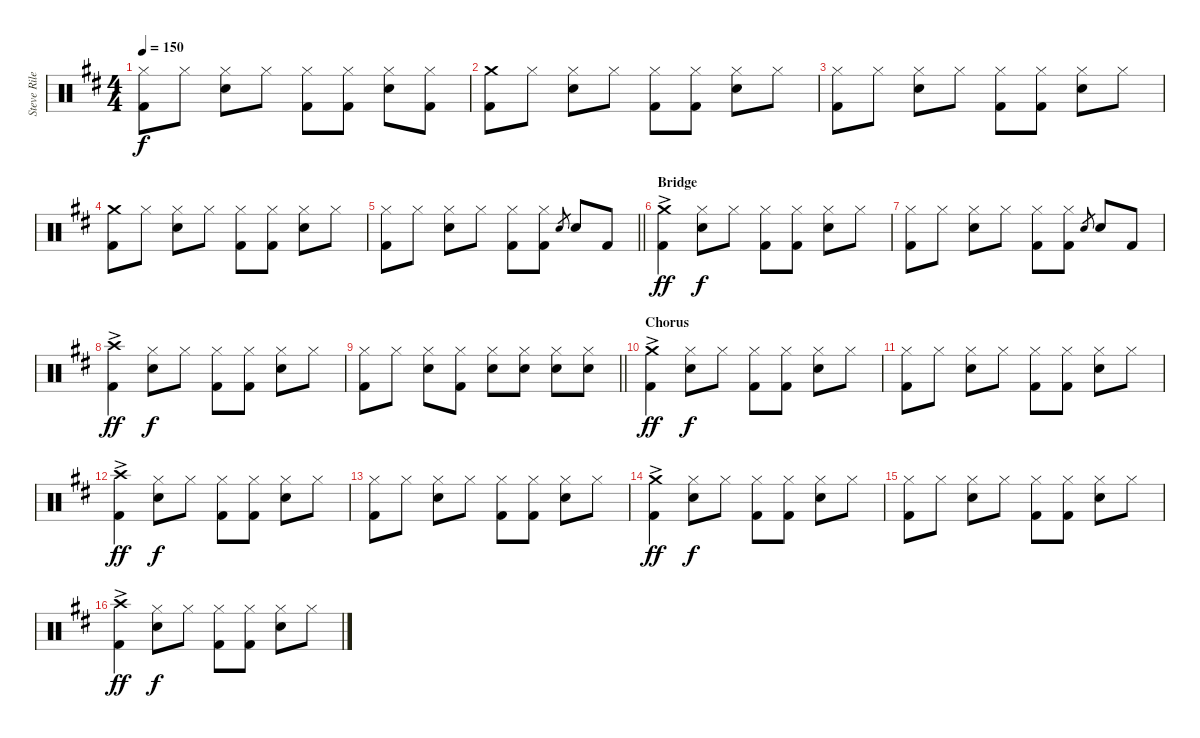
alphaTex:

\track ("Steve Riley" "Steve Rile") {instrument percussion}
\staff {score}
\articulation defaults
\ts (4 4)
\tempo 150
\clef neutral
\ks d
("Hi-Hat (closed)" "Kick (hit) 2").8{dy f} "Hi-Hat (closed)".8 ("Hi-Hat (closed)" "Electric Snare (hit)").8 "Hi-Hat (closed)".8 ("Hi-Hat (closed)" "Kick (hit) 2").8 ("Hi-Hat (closed)" "Kick (hit) 2").8 ("Hi-Hat (closed)" "Electric Snare (hit)").8 ("Hi-Hat (closed)" "Kick (hit) 2").8 |
("Crash medium (hit)" "Kick (hit) 2").8 "Hi-Hat (closed)".8 ("Hi-Hat (closed)" "Electric Snare (hit)").8 "Hi-Hat (closed)".8 ("Hi-Hat (closed)" "Kick (hit) 2").8 ("Hi-Hat (closed)" "Kick (hit) 2").8 ("Hi-Hat (closed)" "Electric Snare (hit)").8 "Hi-Hat (closed)".8 |
("Hi-Hat (closed)" "Kick (hit) 2").8 "Hi-Hat (closed)".8 ("Hi-Hat (closed)" "Electric Snare (hit)").8 "Hi-Hat (closed)".8 ("Hi-Hat (closed)" "Kick (hit) 2").8 ("Hi-Hat (closed)" "Kick (hit) 2").8 ("Hi-Hat (closed)" "Electric Snare (hit)").8 "Hi-Hat (closed)".8 |
("Crash medium (hit)" "Kick (hit) 2").8 "Hi-Hat (closed)".8 ("Hi-Hat (closed)" "Electric Snare (hit)").8 "Hi-Hat (closed)".8 ("Hi-Hat (closed)" "Kick (hit) 2").8 ("Hi-Hat (closed)" "Kick (hit) 2").8 ("Hi-Hat (closed)" "Electric Snare (hit)").8 "Hi-Hat (closed)".8 |
\barLineRight lightlight
("Hi-Hat (closed)" "Kick (hit) 2").8 "Hi-Hat (closed)".8 ("Hi-Hat (closed)" "Electric Snare (hit)").8 "Hi-Hat (closed)".8 ("Hi-Hat (closed)" "Kick (hit) 2").8 ("Hi-Hat (closed)" "Kick (hit) 2").8 "Electric Snare (hit)".8{gr} "Electric Snare (hit)".8 "Kick (hit) 2".8 |
\section ("" "Bridge")
("Crash medium (hit)"{ac} "Kick (hit) 2").4{dy ff} ("Hi-Hat (closed)" "Electric Snare (hit)").8{dy f} "Hi-Hat (closed)".8 ("Hi-Hat (closed)" "Kick (hit) 2").8 ("Hi-Hat (closed)" "Kick (hit) 2").8 ("Hi-Hat (closed)" "Electric Snare (hit)").8 "Hi-Hat (closed)".8 |
("Hi-Hat (closed)" "Kick (hit) 2").8 "Hi-Hat (closed)".8 ("Hi-Hat (closed)" "Electric Snare (hit)").8 "Hi-Hat (closed)".8 ("Hi-Hat (closed)" "Kick (hit) 2").8 ("Hi-Hat (closed)" "Kick (hit) 2").8 "Electric Snare (hit)".8{gr} "Electric Snare (hit)".8 "Kick (hit) 2".8 |
("Crash high (hit)"{ac} "Kick (hit) 2").4{dy ff} ("Hi-Hat (closed)" "Electric Snare (hit)").8{dy f} "Hi-Hat (closed)".8 ("Hi-Hat (closed)" "Kick (hit) 2").8 ("Hi-Hat (closed)" "Kick (hit) 2").8 ("Hi-Hat (closed)" "Electric Snare (hit)").8 "Hi-Hat (closed)".8 |
\barLineRight lightlight
("Hi-Hat (closed)" "Kick (hit) 2").8 "Hi-Hat (closed)".8 ("Hi-Hat (closed)" "Electric Snare (hit)").8 ("Hi-Hat (closed)" "Kick (hit) 2").8 ("Hi-Hat (closed)" "Electric Snare (hit)").8 ("Hi-Hat (closed)" "Electric Snare (hit)").8 ("Hi-Hat (closed)" "Electric Snare (hit)").8 ("Hi-Hat (closed)" "Electric Snare (hit)").8 |
\section ("" "Chorus")
("Crash medium (hit)"{ac} "Kick (hit) 2").4{dy ff} ("Hi-Hat (closed)" "Electric Snare (hit)").8{dy f} "Hi-Hat (closed)".8 ("Hi-Hat (closed)" "Kick (hit) 2").8 ("Hi-Hat (closed)" "Kick (hit) 2").8 ("Hi-Hat (closed)" "Electric Snare (hit)").8 "Hi-Hat (closed)".8 |
("Hi-Hat (closed)" "Kick (hit) 2").8 "Hi-Hat (closed)".8 ("Hi-Hat (closed)" "Electric Snare (hit)").8 "Hi-Hat (closed)".8 ("Hi-Hat (closed)" "Kick (hit) 2").8 ("Hi-Hat (closed)" "Kick (hit) 2").8 ("Hi-Hat (closed)" "Electric Snare (hit)").8 "Hi-Hat (closed)".8 |
("Crash high (hit)"{ac} "Kick (hit) 2").4{dy ff} ("Hi-Hat (closed)" "Electric Snare (hit)").8{dy f} "Hi-Hat (closed)".8 ("Hi-Hat (closed)" "Kick (hit) 2").8 ("Hi-Hat (closed)" "Kick (hit) 2").8 ("Hi-Hat (closed)" "Electric Snare (hit)").8 "Hi-Hat (closed)".8 |
("Hi-Hat (closed)" "Kick (hit) 2").8 "Hi-Hat (closed)".8 ("Hi-Hat (closed)" "Electric Snare (hit)").8 "Hi-Hat (closed)".8 ("Hi-Hat (closed)" "Kick (hit) 2").8 ("Hi-Hat (closed)" "Kick (hit) 2").8 ("Hi-Hat (closed)" "Electric Snare (hit)").8 "Hi-Hat (closed)".8 |
("Crash medium (hit)"{ac} "Kick (hit) 2").4{dy ff} ("Hi-Hat (closed)" "Electric Snare (hit)").8{dy f} "Hi-Hat (closed)".8 ("Hi-Hat (closed)" "Kick (hit) 2").8 ("Hi-Hat (closed)" "Kick (hit) 2").8 ("Hi-Hat (closed)" "Electric Snare (hit)").8 "Hi-Hat (closed)".8 |
("Hi-Hat (closed)" "Kick (hit) 2").8 "Hi-Hat (closed)".8 ("Hi-Hat (closed)" "Electric Snare (hit)").8 "Hi-Hat (closed)".8 ("Hi-Hat (closed)" "Kick (hit) 2").8 ("Hi-Hat (closed)" "Kick (hit) 2").8 ("Hi-Hat (closed)" "Electric Snare (hit)").8 "Hi-Hat (closed)".8 |
("Crash high (hit)"{ac} "Kick (hit) 2").4{dy ff} ("Hi-Hat (closed)" "Electric Snare (hit)").8{dy f} "Hi-Hat (closed)".8 ("Hi-Hat (closed)" "Kick (hit) 2").8 ("Hi-Hat (closed)" "Kick (hit) 2").8 ("Hi-Hat (closed)" "Electric Snare (hit)").8 "Hi-Hat (closed)".8
